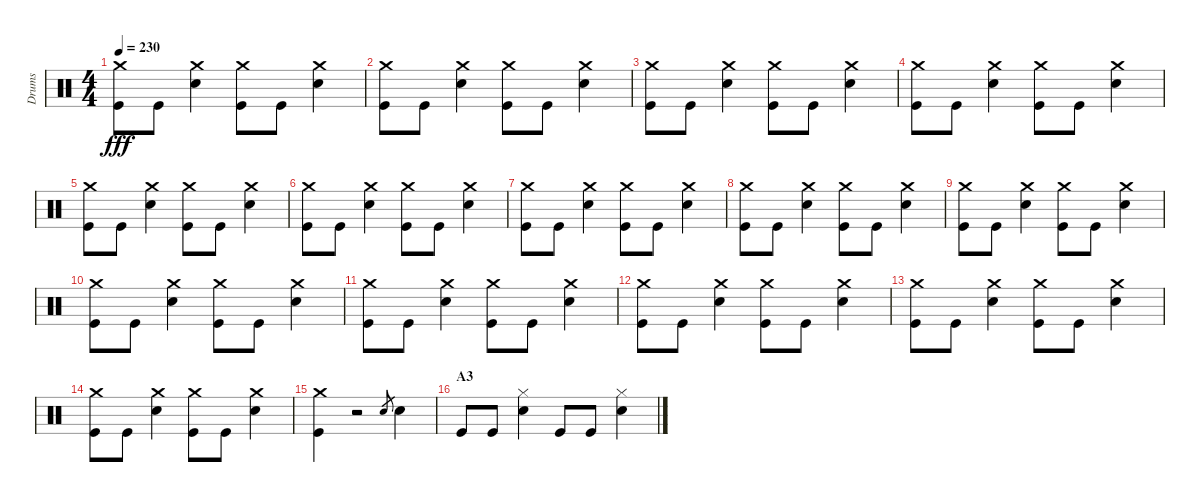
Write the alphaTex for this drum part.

\track ("Drums" "Drums") {instrument percussion}
\staff {score}
\articulation defaults
\ts (4 4)
\tempo 230
\clef neutral
\ks c
("Crash medium (hit)" "Kick (hit)").8{dy fff} "Kick (hit)".8 ("Crash medium (hit)" "Snare (hit) 2").4 ("Crash medium (hit)" "Kick (hit)").8 "Kick (hit)".8 ("Crash medium (hit)" "Snare (hit) 2").4 |
("Crash medium (hit)" "Kick (hit)").8 "Kick (hit)".8 ("Crash medium (hit)" "Snare (hit) 2").4 ("Crash medium (hit)" "Kick (hit)").8 "Kick (hit)".8 ("Crash medium (hit)" "Snare (hit) 2").4 |
("Crash medium (hit)" "Kick (hit)").8 "Kick (hit)".8 ("Crash medium (hit)" "Snare (hit) 2").4 ("Crash medium (hit)" "Kick (hit)").8 "Kick (hit)".8 ("Crash medium (hit)" "Snare (hit) 2").4 |
("Crash medium (hit)" "Kick (hit)").8 "Kick (hit)".8 ("Crash medium (hit)" "Snare (hit) 2").4 ("Crash medium (hit)" "Kick (hit)").8 "Kick (hit)".8 ("Crash medium (hit)" "Snare (hit) 2").4 |
("Crash medium (hit)" "Kick (hit)").8 "Kick (hit)".8 ("Crash medium (hit)" "Snare (hit) 2").4 ("Crash medium (hit)" "Kick (hit)").8 "Kick (hit)".8 ("Crash medium (hit)" "Snare (hit) 2").4 |
("Crash medium (hit)" "Kick (hit)").8 "Kick (hit)".8 ("Crash medium (hit)" "Snare (hit) 2").4 ("Crash medium (hit)" "Kick (hit)").8 "Kick (hit)".8 ("Crash medium (hit)" "Snare (hit) 2").4 |
("Crash medium (hit)" "Kick (hit)").8 "Kick (hit)".8 ("Crash medium (hit)" "Snare (hit) 2").4 ("Crash medium (hit)" "Kick (hit)").8 "Kick (hit)".8 ("Crash medium (hit)" "Snare (hit) 2").4 |
("Crash medium (hit)" "Kick (hit)").8 "Kick (hit)".8 ("Crash medium (hit)" "Snare (hit) 2").4 ("Crash medium (hit)" "Kick (hit)").8 "Kick (hit)".8 ("Crash medium (hit)" "Snare (hit) 2").4 |
("Crash medium (hit)" "Kick (hit)").8 "Kick (hit)".8 ("Crash medium (hit)" "Snare (hit) 2").4 ("Crash medium (hit)" "Kick (hit)").8 "Kick (hit)".8 ("Crash medium (hit)" "Snare (hit) 2").4 |
("Crash medium (hit)" "Kick (hit)").8 "Kick (hit)".8 ("Crash medium (hit)" "Snare (hit) 2").4 ("Crash medium (hit)" "Kick (hit)").8 "Kick (hit)".8 ("Crash medium (hit)" "Snare (hit) 2").4 |
("Crash medium (hit)" "Kick (hit)").8 "Kick (hit)".8 ("Crash medium (hit)" "Snare (hit) 2").4 ("Crash medium (hit)" "Kick (hit)").8 "Kick (hit)".8 ("Crash medium (hit)" "Snare (hit) 2").4 |
("Crash medium (hit)" "Kick (hit)").8 "Kick (hit)".8 ("Crash medium (hit)" "Snare (hit) 2").4 ("Crash medium (hit)" "Kick (hit)").8 "Kick (hit)".8 ("Crash medium (hit)" "Snare (hit) 2").4 |
("Crash medium (hit)" "Kick (hit)").8 "Kick (hit)".8 ("Crash medium (hit)" "Snare (hit) 2").4 ("Crash medium (hit)" "Kick (hit)").8 "Kick (hit)".8 ("Crash medium (hit)" "Snare (hit) 2").4 |
("Crash medium (hit)" "Kick (hit)").8 "Kick (hit)".8 ("Crash medium (hit)" "Snare (hit) 2").4 ("Crash medium (hit)" "Kick (hit)").8 "Kick (hit)".8 ("Crash medium (hit)" "Snare (hit) 2").4 |
("Crash medium (hit)" "Kick (hit)").4 r.2 "Snare (hit) 2".8{gr} "Snare (hit) 2".4 |
\section ("" "A3")
"Kick (hit)".8 "Kick (hit)".8 ("Hi-Hat (closed)" "Snare (hit) 2").4 "Kick (hit)".8 "Kick (hit)".8 ("Hi-Hat (closed)" "Snare (hit) 2").4
